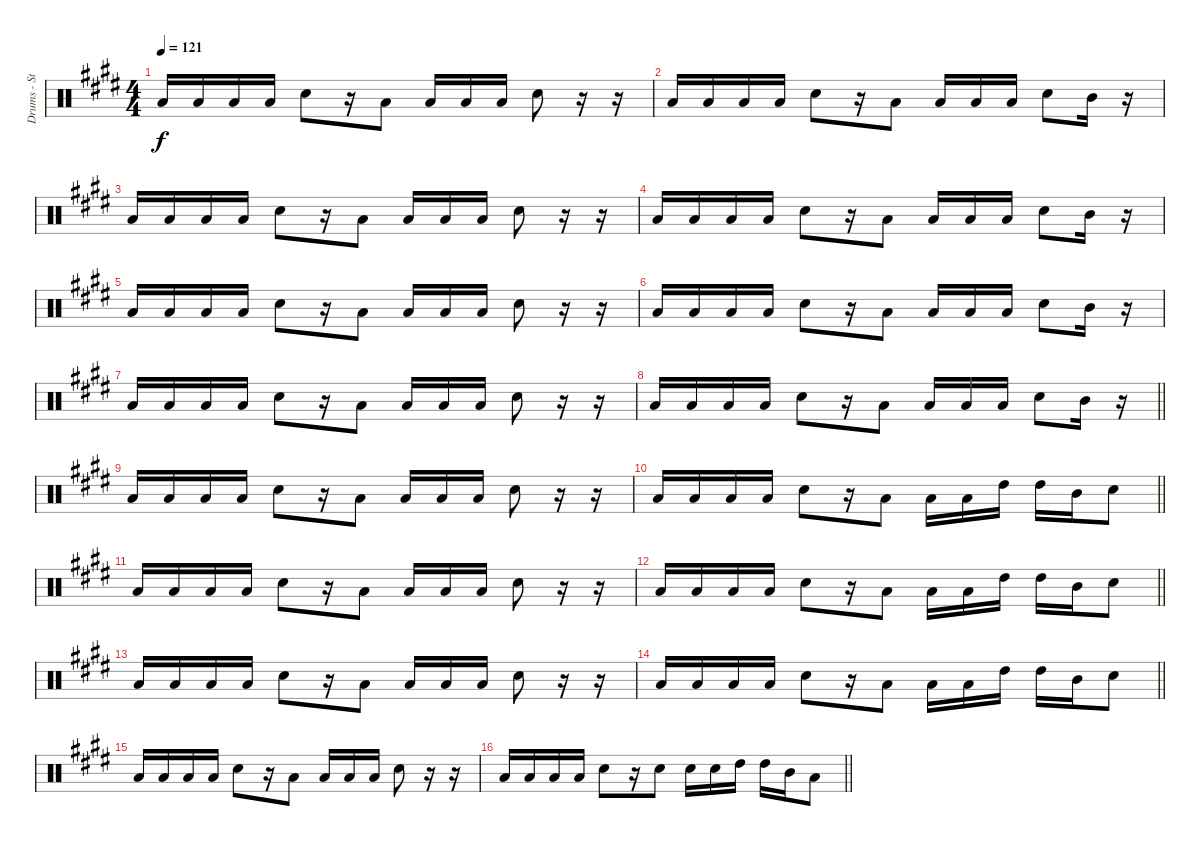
\track ("Drums - Stephen Morris" "Drums - St") {instrument percussion}
\staff {score}
\articulation defaults
\ts (4 4)
\tempo 121
\clef neutral
\ks e "Low Tom (hit)".16{dy f} "Low Tom (hit)".16 "Low Tom (hit)".16 "Low Tom (hit)".16 "Electric Snare (hit)".8
r.16 "Low Tom (hit)".8 "Low Tom (hit)".16 "Low Tom (hit)".16 "Low Tom (hit)".16 "Electric Snare (hit)".8 r.16 r.16 |
\ks c#minor "Low Tom (hit)".16 "Low Tom (hit)".16 "Low Tom (hit)".16 "Low Tom (hit)".16 "Electric Snare (hit)".8
r.16 "Low Tom (hit)".8 "Low Tom (hit)".16 "Low Tom (hit)".16 "Low Tom (hit)".16 "Electric Snare (hit)".8 "Mid Tom (hit)".16 r.16 |
\ks e "Low Tom (hit)".16 "Low Tom (hit)".16 "Low Tom (hit)".16 "Low Tom (hit)".16 "Electric Snare (hit)".8
r.16 "Low Tom (hit)".8 "Low Tom (hit)".16 "Low Tom (hit)".16 "Low Tom (hit)".16 "Electric Snare (hit)".8 r.16 r.16 |
\ks c#minor "Low Tom (hit)".16 "Low Tom (hit)".16 "Low Tom (hit)".16 "Low Tom (hit)".16 "Electric Snare (hit)".8
r.16 "Low Tom (hit)".8 "Low Tom (hit)".16 "Low Tom (hit)".16 "Low Tom (hit)".16 "Electric Snare (hit)".8 "Mid Tom (hit)".16 r.16 |
\ks e "Low Tom (hit)".16 "Low Tom (hit)".16 "Low Tom (hit)".16 "Low Tom (hit)".16 "Electric Snare (hit)".8
r.16 "Low Tom (hit)".8 "Low Tom (hit)".16 "Low Tom (hit)".16 "Low Tom (hit)".16 "Electric Snare (hit)".8 r.16 r.16 |
\ks c#minor "Low Tom (hit)".16 "Low Tom (hit)".16 "Low Tom (hit)".16 "Low Tom (hit)".16 "Electric Snare (hit)".8
r.16 "Low Tom (hit)".8 "Low Tom (hit)".16 "Low Tom (hit)".16 "Low Tom (hit)".16 "Electric Snare (hit)".8 "Mid Tom (hit)".16 r.16 |
\ks e "Low Tom (hit)".16 "Low Tom (hit)".16 "Low Tom (hit)".16 "Low Tom (hit)".16 "Electric Snare (hit)".8
r.16 "Low Tom (hit)".8 "Low Tom (hit)".16 "Low Tom (hit)".16 "Low Tom (hit)".16 "Electric Snare (hit)".8 r.16 r.16 |
\barLineRight lightlight
\ks c#minor "Low Tom (hit)".16 "Low Tom (hit)".16 "Low Tom (hit)".16 "Low Tom (hit)".16 "Electric Snare (hit)".8
r.16 "Low Tom (hit)".8 "Low Tom (hit)".16 "Low Tom (hit)".16 "Low Tom (hit)".16 "Electric Snare (hit)".8 "Mid Tom (hit)".16 r.16 |
\ks e "Low Tom (hit)".16 "Low Tom (hit)".16 "Low Tom (hit)".16 "Low Tom (hit)".16 "Electric Snare (hit)".8
r.16 "Low Tom (hit)".8 "Low Tom (hit)".16 "Low Tom (hit)".16 "Low Tom (hit)".16 "Electric Snare (hit)".8 r.16 r.16 |
\barLineRight lightlight
\ks c#minor "Low Tom (hit)".16 "Low Tom (hit)".16 "Low Tom (hit)".16 "Low Tom (hit)".16 "Electric Snare (hit)".8
r.16 "Low Tom (hit)".8 "Low Tom (hit)".16 "Low Tom (hit)".16 "High Tom (hit)".16 "High Tom (hit)".16 "Mid Tom (hit)".16 "Electric Snare (hit)".8 |
\ks e "Low Tom (hit)".16 "Low Tom (hit)".16 "Low Tom (hit)".16 "Low Tom (hit)".16 "Electric Snare (hit)".8
r.16 "Low Tom (hit)".8 "Low Tom (hit)".16 "Low Tom (hit)".16 "Low Tom (hit)".16 "Electric Snare (hit)".8 r.16 r.16 |
\barLineRight lightlight
\ks c#minor "Low Tom (hit)".16 "Low Tom (hit)".16 "Low Tom (hit)".16 "Low Tom (hit)".16 "Electric Snare (hit)".8
r.16 "Low Tom (hit)".8 "Low Tom (hit)".16 "Low Tom (hit)".16 "High Tom (hit)".16 "High Tom (hit)".16 "Mid Tom (hit)".16 "Electric Snare (hit)".8 |
\ks e "Low Tom (hit)".16 "Low Tom (hit)".16 "Low Tom (hit)".16 "Low Tom (hit)".16 "Electric Snare (hit)".8
r.16 "Low Tom (hit)".8 "Low Tom (hit)".16 "Low Tom (hit)".16 "Low Tom (hit)".16 "Electric Snare (hit)".8 r.16 r.16 |
\barLineRight lightlight
\ks c#minor "Low Tom (hit)".16 "Low Tom (hit)".16 "Low Tom (hit)".16 "Low Tom (hit)".16 "Electric Snare (hit)".8
r.16 "Low Tom (hit)".8 "Low Tom (hit)".16 "Low Tom (hit)".16 "High Tom (hit)".16 "High Tom (hit)".16 "Mid Tom (hit)".16 "Electric Snare (hit)".8 |
\ks e "Low Tom (hit)".16 "Low Tom (hit)".16 "Low Tom (hit)".16 "Low Tom (hit)".16 "Electric Snare (hit)".8
r.16 "Low Tom (hit)".8 "Low Tom (hit)".16 "Low Tom (hit)".16 "Low Tom (hit)".16 "Electric Snare (hit)".8 r.16 r.16 |
\barLineRight lightlight
\ks c#minor "Low Tom (hit)".16 "Low Tom (hit)".16 "Low Tom (hit)".16 "Low Tom (hit)".16 "Electric Snare (hit)".8
r.16 "Electric Snare (hit)".8 "Electric Snare (hit)".16 "Electric Snare (hit)".16 "High Tom (hit)".16 "High Tom (hit)".16 "Mid Tom (hit)".16 "Low Tom (hit)".8
